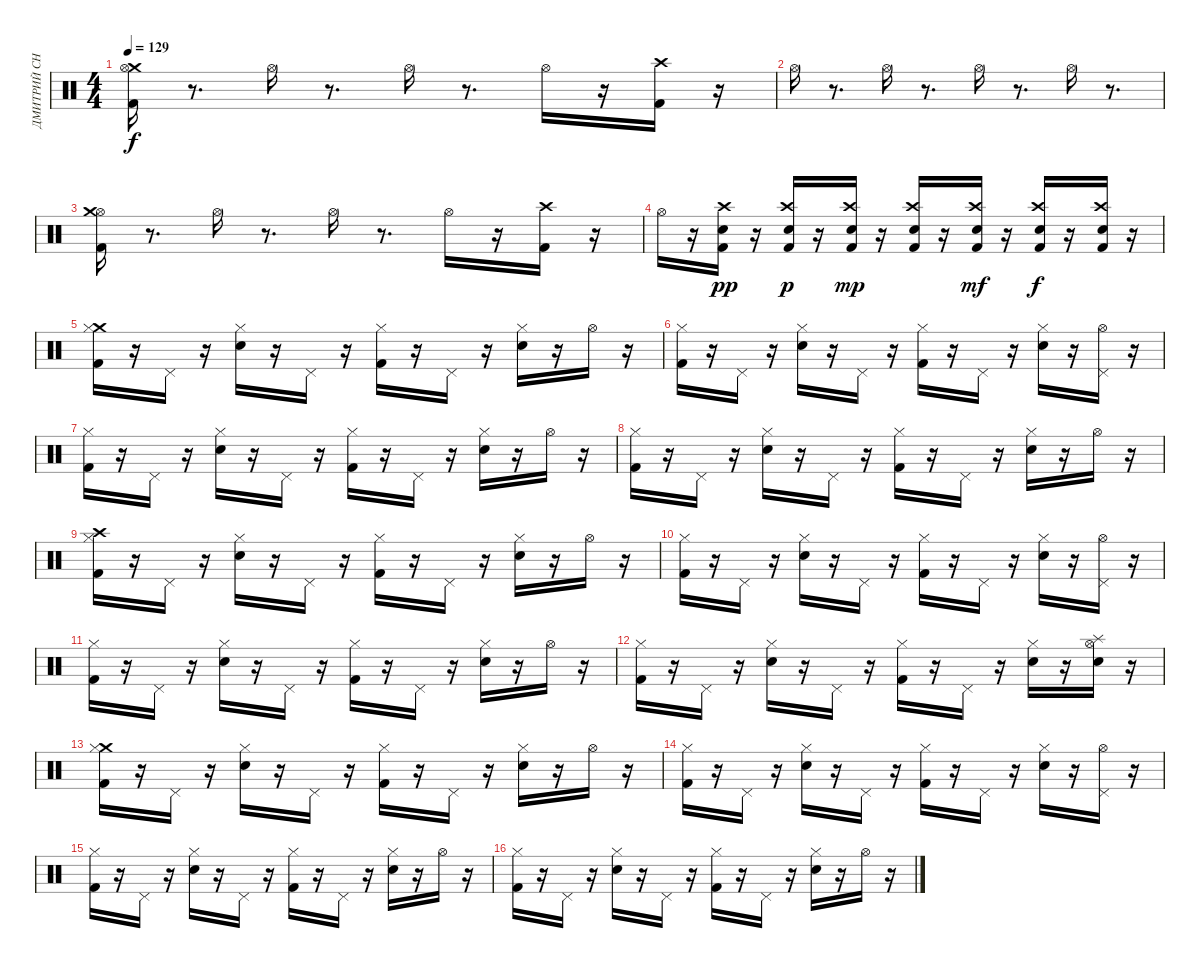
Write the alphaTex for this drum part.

\track ("ДМИТРИЙ СНЭЙК" "ДМИТРИЙ СН") {instrument percussion}
\staff {score}
\articulation defaults
\ts (4 4)
\tempo 129
\clef neutral
\ks c
("Crash medium (hit)" "Kick (hit) 2" "Hi-Hat (open)").16{dy f} r.8{d} "Hi-Hat (open)".16 r.8{d} "Hi-Hat (open)".16 r.8{d} "Hi-Hat (open)".16 r.16 ("Crash high (hit)" "Kick (hit) 2").16 r.16 |
"Hi-Hat (open)".16 r.8{d} "Hi-Hat (open)".16 r.8{d} "Hi-Hat (open)".16 r.8{d} "Hi-Hat (open)".16 r.8{d} |
("Hi-Hat (open)" "Crash medium (hit)" "Kick (hit) 2").16 r.8{d} "Hi-Hat (open)".16 r.8{d} "Hi-Hat (open)".16 r.8{d} "Hi-Hat (open)".16 r.16 ("Kick (hit) 2" "Crash high (hit)").16 r.16 |
"Hi-Hat (open)".16 r.16 ("Crash high (hit)" "Electric Snare (hit)" "Kick (hit) 2").16{dy pp} r.16 ("Crash high (hit)" "Electric Snare (hit)" "Kick (hit) 2").16{dy p} r.16 ("Crash high (hit)" "Electric Snare (hit)" "Kick (hit) 2").16{dy mp} r.16 ("Crash high (hit)" "Electric Snare (hit)" "Kick (hit) 2").16 r.16 ("Crash high (hit)" "Electric Snare (hit)" "Kick (hit) 2").16{dy mf} r.16 ("Crash high (hit)" "Electric Snare (hit)" "Kick (hit) 2").16{dy f} r.16 ("Crash high (hit)" "Electric Snare (hit)" "Kick (hit) 2").16 r.16 |
("Crash medium (hit)" "Hi-Hat (closed)" "Kick (hit) 2").16 r.16 "Pedal Hi-Hat (hit)".16 r.16 ("Hi-Hat (closed)" "Electric Snare (hit)").16 r.16 "Pedal Hi-Hat (hit)".16 r.16 ("Hi-Hat (closed)" "Kick (hit) 2").16 r.16 "Pedal Hi-Hat (hit)".16 r.16 ("Hi-Hat (closed)" "Electric Snare (hit)").16 r.16 "Hi-Hat (open)".16 r.16 |
("Hi-Hat (closed)" "Kick (hit) 2").16 r.16 "Pedal Hi-Hat (hit)".16 r.16 ("Hi-Hat (closed)" "Electric Snare (hit)").16 r.16 "Pedal Hi-Hat (hit)".16 r.16 ("Hi-Hat (closed)" "Kick (hit) 2").16 r.16 "Pedal Hi-Hat (hit)".16 r.16 ("Hi-Hat (closed)" "Electric Snare (hit)").16 r.16 ("Pedal Hi-Hat (hit)" "Hi-Hat (open)").16 r.16 |
("Hi-Hat (closed)" "Kick (hit) 2").16 r.16 "Pedal Hi-Hat (hit)".16 r.16 ("Hi-Hat (closed)" "Electric Snare (hit)").16 r.16 "Pedal Hi-Hat (hit)".16 r.16 ("Hi-Hat (closed)" "Kick (hit) 2").16 r.16 "Pedal Hi-Hat (hit)".16 r.16 ("Hi-Hat (closed)" "Electric Snare (hit)").16 r.16 "Hi-Hat (open)".16 r.16 |
("Hi-Hat (closed)" "Kick (hit) 2").16 r.16 "Pedal Hi-Hat (hit)".16 r.16 ("Hi-Hat (closed)" "Electric Snare (hit)").16 r.16 "Pedal Hi-Hat (hit)".16 r.16 ("Hi-Hat (closed)" "Kick (hit) 2").16 r.16 "Pedal Hi-Hat (hit)".16 r.16 ("Hi-Hat (closed)" "Electric Snare (hit)").16 r.16 "Hi-Hat (open)".16 r.16 |
("Crash high (hit)" "Hi-Hat (closed)" "Kick (hit) 2").16 r.16 "Pedal Hi-Hat (hit)".16 r.16 ("Hi-Hat (closed)" "Electric Snare (hit)").16 r.16 "Pedal Hi-Hat (hit)".16 r.16 ("Hi-Hat (closed)" "Kick (hit) 2").16 r.16 "Pedal Hi-Hat (hit)".16 r.16 ("Hi-Hat (closed)" "Electric Snare (hit)").16 r.16 "Hi-Hat (open)".16 r.16 |
("Hi-Hat (closed)" "Kick (hit) 2").16 r.16 "Pedal Hi-Hat (hit)".16 r.16 ("Hi-Hat (closed)" "Electric Snare (hit)").16 r.16 "Pedal Hi-Hat (hit)".16 r.16 ("Hi-Hat (closed)" "Kick (hit) 2").16 r.16 "Pedal Hi-Hat (hit)".16 r.16 ("Hi-Hat (closed)" "Electric Snare (hit)").16 r.16 ("Pedal Hi-Hat (hit)" "Hi-Hat (open)").16 r.16 |
("Hi-Hat (closed)" "Kick (hit) 2").16 r.16 "Pedal Hi-Hat (hit)".16 r.16 ("Hi-Hat (closed)" "Electric Snare (hit)").16 r.16 "Pedal Hi-Hat (hit)".16 r.16 ("Hi-Hat (closed)" "Kick (hit) 2").16 r.16 "Pedal Hi-Hat (hit)".16 r.16 ("Hi-Hat (closed)" "Electric Snare (hit)").16 r.16 "Hi-Hat (open)".16 r.16 |
("Hi-Hat (closed)" "Kick (hit) 2").16 r.16 "Pedal Hi-Hat (hit)".16 r.16 ("Hi-Hat (closed)" "Electric Snare (hit)").16 r.16 "Pedal Hi-Hat (hit)".16 r.16 ("Hi-Hat (closed)" "Kick (hit) 2").16 r.16 "Pedal Hi-Hat (hit)".16 r.16 ("Hi-Hat (closed)" "Electric Snare (hit)").16 r.16 ("Splash (hit)" "Electric Snare (hit)" "Hi-Hat (open)").16 r.16 |
("Crash medium (hit)" "Hi-Hat (closed)" "Kick (hit) 2").16 r.16 "Pedal Hi-Hat (hit)".16 r.16 ("Hi-Hat (closed)" "Electric Snare (hit)").16 r.16 "Pedal Hi-Hat (hit)".16 r.16 ("Hi-Hat (closed)" "Kick (hit) 2").16 r.16 "Pedal Hi-Hat (hit)".16 r.16 ("Hi-Hat (closed)" "Electric Snare (hit)").16 r.16 "Hi-Hat (open)".16 r.16 |
("Hi-Hat (closed)" "Kick (hit) 2").16 r.16 "Pedal Hi-Hat (hit)".16 r.16 ("Hi-Hat (closed)" "Electric Snare (hit)").16 r.16 "Pedal Hi-Hat (hit)".16 r.16 ("Hi-Hat (closed)" "Kick (hit) 2").16 r.16 "Pedal Hi-Hat (hit)".16 r.16 ("Hi-Hat (closed)" "Electric Snare (hit)").16 r.16 ("Pedal Hi-Hat (hit)" "Hi-Hat (open)").16 r.16 |
("Hi-Hat (closed)" "Kick (hit) 2").16 r.16 "Pedal Hi-Hat (hit)".16 r.16 ("Hi-Hat (closed)" "Electric Snare (hit)").16 r.16 "Pedal Hi-Hat (hit)".16 r.16 ("Hi-Hat (closed)" "Kick (hit) 2").16 r.16 "Pedal Hi-Hat (hit)".16 r.16 ("Hi-Hat (closed)" "Electric Snare (hit)").16 r.16 "Hi-Hat (open)".16 r.16 |
("Kick (hit) 2" "Hi-Hat (closed)").16 r.16 "Pedal Hi-Hat (hit)".16 r.16 ("Hi-Hat (closed)" "Electric Snare (hit)").16 r.16 "Pedal Hi-Hat (hit)".16 r.16 ("Kick (hit) 2" "Hi-Hat (closed)").16 r.16 "Pedal Hi-Hat (hit)".16 r.16 ("Electric Snare (hit)" "Hi-Hat (closed)").16 r.16 "Hi-Hat (open)".16 r.16
